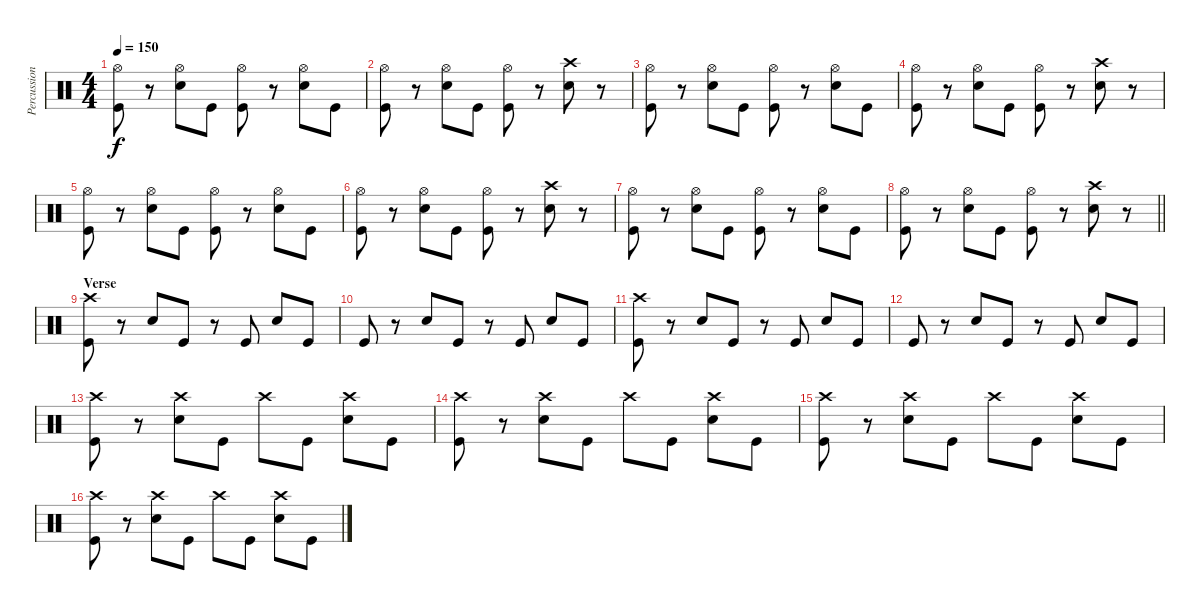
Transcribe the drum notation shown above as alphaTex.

\track ("Percussion" "Percussion") {instrument percussion}
\staff
\articulation defaults
\ts (4 4)
\tempo 150
\clef neutral
\ks c
("Hi-Hat (open)" "Kick (hit)").8{dy f} r.8 ("Hi-Hat (open)" "Electric Snare (hit)").8 "Kick (hit)".8 ("Hi-Hat (open)" "Kick (hit)").8 r.8 ("Hi-Hat (open)" "Electric Snare (hit)").8 "Kick (hit)".8 |
("Hi-Hat (open)" "Kick (hit)").8 r.8 ("Hi-Hat (open)" "Electric Snare (hit)").8 "Kick (hit)".8 ("Hi-Hat (open)" "Kick (hit)").8 r.8 ("Crash high (hit)" "Electric Snare (hit)").8 r.8 |
("Hi-Hat (open)" "Kick (hit)").8 r.8 ("Hi-Hat (open)" "Electric Snare (hit)").8 "Kick (hit)".8 ("Hi-Hat (open)" "Kick (hit)").8 r.8 ("Hi-Hat (open)" "Electric Snare (hit)").8 "Kick (hit)".8 |
("Hi-Hat (open)" "Kick (hit)").8 r.8 ("Hi-Hat (open)" "Electric Snare (hit)").8 "Kick (hit)".8 ("Hi-Hat (open)" "Kick (hit)").8 r.8 ("Crash high (hit)" "Electric Snare (hit)").8 r.8 |
("Hi-Hat (open)" "Kick (hit)").8 r.8 ("Hi-Hat (open)" "Electric Snare (hit)").8 "Kick (hit)".8 ("Hi-Hat (open)" "Kick (hit)").8 r.8 ("Hi-Hat (open)" "Electric Snare (hit)").8 "Kick (hit)".8 |
("Hi-Hat (open)" "Kick (hit)").8 r.8 ("Hi-Hat (open)" "Electric Snare (hit)").8 "Kick (hit)".8 ("Hi-Hat (open)" "Kick (hit)").8 r.8 ("Crash high (hit)" "Electric Snare (hit)").8 r.8 |
("Hi-Hat (open)" "Kick (hit)").8 r.8 ("Hi-Hat (open)" "Electric Snare (hit)").8 "Kick (hit)".8 ("Hi-Hat (open)" "Kick (hit)").8 r.8 ("Hi-Hat (open)" "Electric Snare (hit)").8 "Kick (hit)".8 |
\barLineRight lightlight
("Hi-Hat (open)" "Kick (hit)").8 r.8 ("Hi-Hat (open)" "Electric Snare (hit)").8 "Kick (hit)".8 ("Hi-Hat (open)" "Kick (hit)").8 r.8 ("Crash high (hit)" "Electric Snare (hit)").8 r.8 |
\section ("" "Verse")
("Crash high (hit)" "Kick (hit)").8 r.8 "Electric Snare (hit)".8 "Kick (hit)".8 r.8 "Kick (hit)".8 "Electric Snare (hit)".8 "Kick (hit)".8 |
"Kick (hit)".8 r.8 "Electric Snare (hit)".8 "Kick (hit)".8 r.8 "Kick (hit)".8 "Electric Snare (hit)".8 "Kick (hit)".8 |
("Crash high (hit)" "Kick (hit)").8 r.8 "Electric Snare (hit)".8 "Kick (hit)".8 r.8 "Kick (hit)".8 "Electric Snare (hit)".8 "Kick (hit)".8 |
"Kick (hit)".8 r.8 "Electric Snare (hit)".8 "Kick (hit)".8 r.8 "Kick (hit)".8 "Electric Snare (hit)".8 "Kick (hit)".8 |
("Crash high (hit)" "Kick (hit)").8 r.8 ("Crash high (hit)" "Electric Snare (hit)").8 "Kick (hit)".8 "Crash high (hit)".8 "Kick (hit)".8 ("Crash high (hit)" "Electric Snare (hit)").8 "Kick (hit)".8 |
("Crash high (hit)" "Kick (hit)").8 r.8 ("Crash high (hit)" "Electric Snare (hit)").8 "Kick (hit)".8 "Crash high (hit)".8 "Kick (hit)".8 ("Crash high (hit)" "Electric Snare (hit)").8 "Kick (hit)".8 |
("Crash high (hit)" "Kick (hit)").8 r.8 ("Crash high (hit)" "Electric Snare (hit)").8 "Kick (hit)".8 "Crash high (hit)".8 "Kick (hit)".8 ("Crash high (hit)" "Electric Snare (hit)").8 "Kick (hit)".8 |
("Crash high (hit)" "Kick (hit)").8 r.8 ("Crash high (hit)" "Electric Snare (hit)").8 "Kick (hit)".8 "Crash high (hit)".8 "Kick (hit)".8 ("Crash high (hit)" "Electric Snare (hit)").8 "Kick (hit)".8
